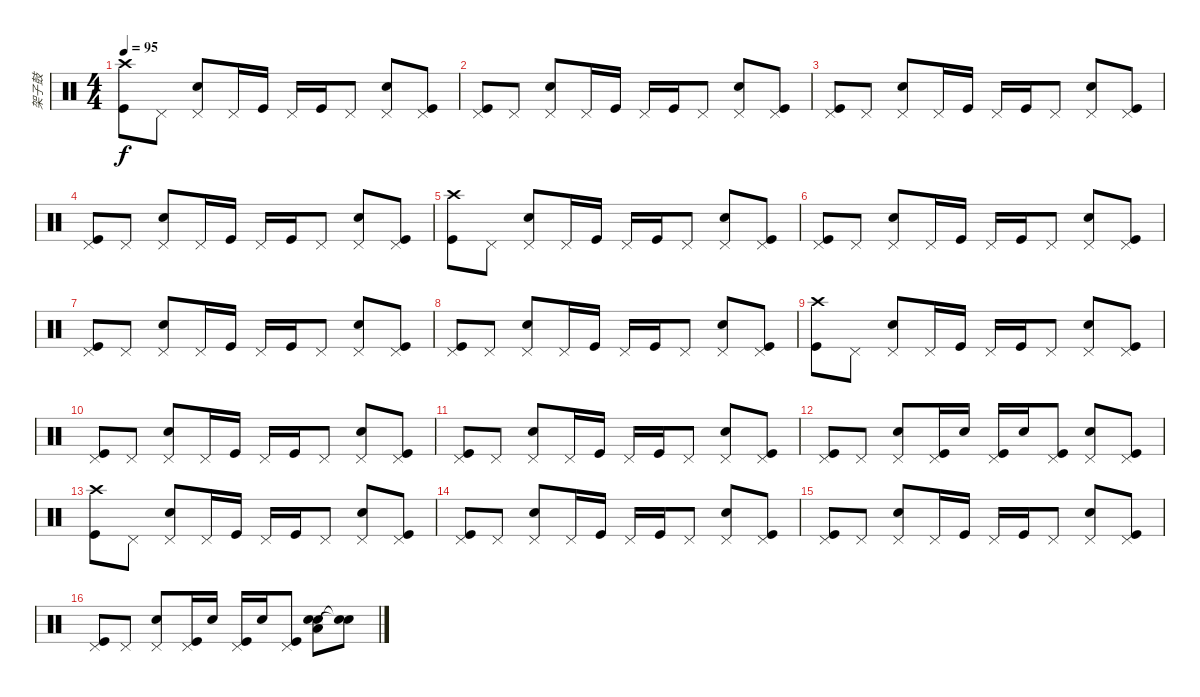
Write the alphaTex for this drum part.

\track ("架子鼓" "架子鼓") {instrument percussion}
\staff {score}
\articulation defaults
\ts (4 4)
\tempo 95
\clef neutral
\ks c
("Kick (hit)" "Crash high (hit)").8{dy f} "Pedal Hi-Hat (hit)".8 ("Snare (hit) 2" "Pedal Hi-Hat (hit)").8 "Pedal Hi-Hat (hit)".16 "Kick (hit)".16 "Pedal Hi-Hat (hit)".16 "Kick (hit)".16 "Pedal Hi-Hat (hit)".8 ("Snare (hit) 2" "Pedal Hi-Hat (hit)").8 ("Kick (hit)" "Pedal Hi-Hat (hit)").8 |
("Kick (hit)" "Pedal Hi-Hat (hit)").8 "Pedal Hi-Hat (hit)".8 ("Snare (hit) 2" "Pedal Hi-Hat (hit)").8 "Pedal Hi-Hat (hit)".16 "Kick (hit)".16 "Pedal Hi-Hat (hit)".16 "Kick (hit)".16 "Pedal Hi-Hat (hit)".8 ("Snare (hit) 2" "Pedal Hi-Hat (hit)").8 ("Kick (hit)" "Pedal Hi-Hat (hit)").8 |
("Kick (hit)" "Pedal Hi-Hat (hit)").8 "Pedal Hi-Hat (hit)".8 ("Snare (hit) 2" "Pedal Hi-Hat (hit)").8 "Pedal Hi-Hat (hit)".16 "Kick (hit)".16 "Pedal Hi-Hat (hit)".16 "Kick (hit)".16 "Pedal Hi-Hat (hit)".8 ("Snare (hit) 2" "Pedal Hi-Hat (hit)").8 ("Kick (hit)" "Pedal Hi-Hat (hit)").8 |
("Kick (hit)" "Pedal Hi-Hat (hit)").8 "Pedal Hi-Hat (hit)".8 ("Snare (hit) 2" "Pedal Hi-Hat (hit)").8 "Pedal Hi-Hat (hit)".16 "Kick (hit)".16 "Pedal Hi-Hat (hit)".16 "Kick (hit)".16 "Pedal Hi-Hat (hit)".8 ("Snare (hit) 2" "Pedal Hi-Hat (hit)").8 ("Kick (hit)" "Pedal Hi-Hat (hit)").8 |
("Kick (hit)" "Crash high (hit)").8 "Pedal Hi-Hat (hit)".8 ("Snare (hit) 2" "Pedal Hi-Hat (hit)").8 "Pedal Hi-Hat (hit)".16 "Kick (hit)".16 "Pedal Hi-Hat (hit)".16 "Kick (hit)".16 "Pedal Hi-Hat (hit)".8 ("Snare (hit) 2" "Pedal Hi-Hat (hit)").8 ("Kick (hit)" "Pedal Hi-Hat (hit)").8 |
("Kick (hit)" "Pedal Hi-Hat (hit)").8 "Pedal Hi-Hat (hit)".8 ("Snare (hit) 2" "Pedal Hi-Hat (hit)").8 "Pedal Hi-Hat (hit)".16 "Kick (hit)".16 "Pedal Hi-Hat (hit)".16 "Kick (hit)".16 "Pedal Hi-Hat (hit)".8 ("Snare (hit) 2" "Pedal Hi-Hat (hit)").8 ("Kick (hit)" "Pedal Hi-Hat (hit)").8 |
("Kick (hit)" "Pedal Hi-Hat (hit)").8 "Pedal Hi-Hat (hit)".8 ("Snare (hit) 2" "Pedal Hi-Hat (hit)").8 "Pedal Hi-Hat (hit)".16 "Kick (hit)".16 "Pedal Hi-Hat (hit)".16 "Kick (hit)".16 "Pedal Hi-Hat (hit)".8 ("Snare (hit) 2" "Pedal Hi-Hat (hit)").8 ("Kick (hit)" "Pedal Hi-Hat (hit)").8 |
("Kick (hit)" "Pedal Hi-Hat (hit)").8 "Pedal Hi-Hat (hit)".8 ("Snare (hit) 2" "Pedal Hi-Hat (hit)").8 "Pedal Hi-Hat (hit)".16 "Kick (hit)".16 "Pedal Hi-Hat (hit)".16 "Kick (hit)".16 "Pedal Hi-Hat (hit)".8 ("Snare (hit) 2" "Pedal Hi-Hat (hit)").8 ("Kick (hit)" "Pedal Hi-Hat (hit)").8 |
("Kick (hit)" "Crash high (hit)").8 "Pedal Hi-Hat (hit)".8 ("Snare (hit) 2" "Pedal Hi-Hat (hit)").8 "Pedal Hi-Hat (hit)".16 "Kick (hit)".16 "Pedal Hi-Hat (hit)".16 "Kick (hit)".16 "Pedal Hi-Hat (hit)".8 ("Snare (hit) 2" "Pedal Hi-Hat (hit)").8 ("Kick (hit)" "Pedal Hi-Hat (hit)").8 |
("Kick (hit)" "Pedal Hi-Hat (hit)").8 "Pedal Hi-Hat (hit)".8 ("Snare (hit) 2" "Pedal Hi-Hat (hit)").8 "Pedal Hi-Hat (hit)".16 "Kick (hit)".16 "Pedal Hi-Hat (hit)".16 "Kick (hit)".16 "Pedal Hi-Hat (hit)".8 ("Snare (hit) 2" "Pedal Hi-Hat (hit)").8 ("Kick (hit)" "Pedal Hi-Hat (hit)").8 |
("Kick (hit)" "Pedal Hi-Hat (hit)").8 "Pedal Hi-Hat (hit)".8 ("Snare (hit) 2" "Pedal Hi-Hat (hit)").8 "Pedal Hi-Hat (hit)".16 "Kick (hit)".16 "Pedal Hi-Hat (hit)".16 "Kick (hit)".16 "Pedal Hi-Hat (hit)".8 ("Snare (hit) 2" "Pedal Hi-Hat (hit)").8 ("Kick (hit)" "Pedal Hi-Hat (hit)").8 |
("Kick (hit)" "Pedal Hi-Hat (hit)").8 "Pedal Hi-Hat (hit)".8 ("Snare (hit) 2" "Pedal Hi-Hat (hit)").8 ("Kick (hit)" "Pedal Hi-Hat (hit)").16 "Snare (hit) 2".16 ("Kick (hit)" "Pedal Hi-Hat (hit)").16 "Snare (hit) 2".16 ("Kick (hit)" "Pedal Hi-Hat (hit)").8 ("Snare (hit) 2" "Pedal Hi-Hat (hit)").8 ("Kick (hit)" "Pedal Hi-Hat (hit)").8 |
("Kick (hit)" "Crash high (hit)").8 "Pedal Hi-Hat (hit)".8 ("Snare (hit) 2" "Pedal Hi-Hat (hit)").8 "Pedal Hi-Hat (hit)".16 "Kick (hit)".16 "Pedal Hi-Hat (hit)".16 "Kick (hit)".16 "Pedal Hi-Hat (hit)".8 ("Snare (hit) 2" "Pedal Hi-Hat (hit)").8 ("Kick (hit)" "Pedal Hi-Hat (hit)").8 |
("Kick (hit)" "Pedal Hi-Hat (hit)").8 "Pedal Hi-Hat (hit)".8 ("Snare (hit) 2" "Pedal Hi-Hat (hit)").8 "Pedal Hi-Hat (hit)".16 "Kick (hit)".16 "Pedal Hi-Hat (hit)".16 "Kick (hit)".16 "Pedal Hi-Hat (hit)".8 ("Snare (hit) 2" "Pedal Hi-Hat (hit)").8 ("Kick (hit)" "Pedal Hi-Hat (hit)").8 |
("Kick (hit)" "Pedal Hi-Hat (hit)").8 "Pedal Hi-Hat (hit)".8 ("Snare (hit) 2" "Pedal Hi-Hat (hit)").8 "Pedal Hi-Hat (hit)".16 "Kick (hit)".16 "Pedal Hi-Hat (hit)".16 "Kick (hit)".16 "Pedal Hi-Hat (hit)".8 ("Snare (hit) 2" "Pedal Hi-Hat (hit)").8 ("Kick (hit)" "Pedal Hi-Hat (hit)").8 |
("Kick (hit)" "Pedal Hi-Hat (hit)").8 "Pedal Hi-Hat (hit)".8 ("Snare (hit) 2" "Pedal Hi-Hat (hit)").8 ("Kick (hit)" "Pedal Hi-Hat (hit)").16 "Snare (hit) 2".16 ("Kick (hit)" "Pedal Hi-Hat (hit)").16 "Snare (hit) 2".16 ("Kick (hit)" "Pedal Hi-Hat (hit)").8 ("Low Floor Tom (hit)" "Snare (hit) 2" "Snare (hit) 2").8 ("Snare (hit)"{t} "Snare (hit)"{t}).8
